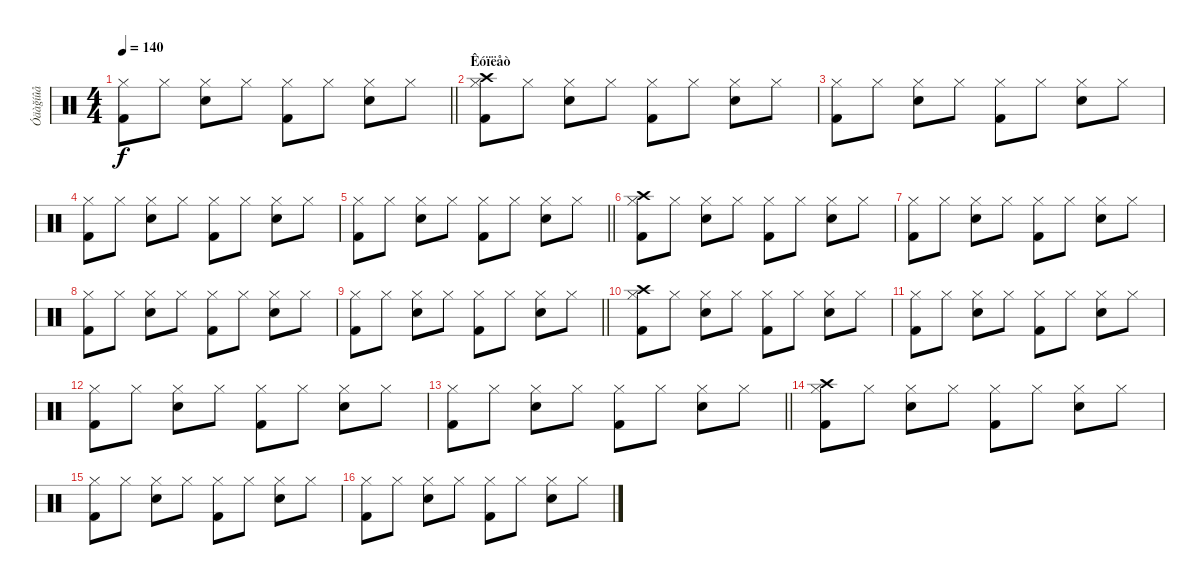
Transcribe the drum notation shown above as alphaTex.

\track ("Óäàğíûå" "Óäàğíûå") {instrument percussion}
\staff {score}
\articulation defaults
\ts (4 4)
\tempo 140
\clef neutral
\barLineRight lightlight
\ks c
("Hi-Hat (closed)" "Kick (hit) 2").8{dy f} "Hi-Hat (closed)".8 ("Hi-Hat (closed)" "Snare (hit) 2").8 "Hi-Hat (closed)".8 ("Hi-Hat (closed)" "Kick (hit) 2").8 "Hi-Hat (closed)".8 ("Hi-Hat (closed)" "Snare (hit) 2").8 "Hi-Hat (closed)".8 |
\section ("" "Êóïëåò")
("Hi-Hat (closed)" "Kick (hit) 2" "Crash high (hit)").8 "Hi-Hat (closed)".8 ("Hi-Hat (closed)" "Snare (hit) 2").8 "Hi-Hat (closed)".8 ("Hi-Hat (closed)" "Kick (hit) 2").8 "Hi-Hat (closed)".8 ("Hi-Hat (closed)" "Snare (hit) 2").8 "Hi-Hat (closed)".8 |
("Hi-Hat (closed)" "Kick (hit) 2").8 "Hi-Hat (closed)".8 ("Hi-Hat (closed)" "Snare (hit) 2").8 "Hi-Hat (closed)".8 ("Hi-Hat (closed)" "Kick (hit) 2").8 "Hi-Hat (closed)".8 ("Hi-Hat (closed)" "Snare (hit) 2").8 "Hi-Hat (closed)".8 |
("Hi-Hat (closed)" "Kick (hit) 2").8 "Hi-Hat (closed)".8 ("Hi-Hat (closed)" "Snare (hit) 2").8 "Hi-Hat (closed)".8 ("Hi-Hat (closed)" "Kick (hit) 2").8 "Hi-Hat (closed)".8 ("Hi-Hat (closed)" "Snare (hit) 2").8 "Hi-Hat (closed)".8 |
\barLineRight lightlight
("Hi-Hat (closed)" "Kick (hit) 2").8 "Hi-Hat (closed)".8 ("Hi-Hat (closed)" "Snare (hit) 2").8 "Hi-Hat (closed)".8 ("Hi-Hat (closed)" "Kick (hit) 2").8 "Hi-Hat (closed)".8 ("Hi-Hat (closed)" "Snare (hit) 2").8 "Hi-Hat (closed)".8 |
("Hi-Hat (closed)" "Kick (hit) 2" "Crash high (hit)").8 "Hi-Hat (closed)".8 ("Hi-Hat (closed)" "Snare (hit) 2").8 "Hi-Hat (closed)".8 ("Hi-Hat (closed)" "Kick (hit) 2").8 "Hi-Hat (closed)".8 ("Hi-Hat (closed)" "Snare (hit) 2").8 "Hi-Hat (closed)".8 |
("Hi-Hat (closed)" "Kick (hit) 2").8 "Hi-Hat (closed)".8 ("Hi-Hat (closed)" "Snare (hit) 2").8 "Hi-Hat (closed)".8 ("Hi-Hat (closed)" "Kick (hit) 2").8 "Hi-Hat (closed)".8 ("Hi-Hat (closed)" "Snare (hit) 2").8 "Hi-Hat (closed)".8 |
("Hi-Hat (closed)" "Kick (hit) 2").8 "Hi-Hat (closed)".8 ("Hi-Hat (closed)" "Snare (hit) 2").8 "Hi-Hat (closed)".8 ("Hi-Hat (closed)" "Kick (hit) 2").8 "Hi-Hat (closed)".8 ("Hi-Hat (closed)" "Snare (hit) 2").8 "Hi-Hat (closed)".8 |
\barLineRight lightlight
("Hi-Hat (closed)" "Kick (hit) 2").8 "Hi-Hat (closed)".8 ("Hi-Hat (closed)" "Snare (hit) 2").8 "Hi-Hat (closed)".8 ("Hi-Hat (closed)" "Kick (hit) 2").8 "Hi-Hat (closed)".8 ("Hi-Hat (closed)" "Snare (hit) 2").8 "Hi-Hat (closed)".8 |
("Hi-Hat (closed)" "Kick (hit) 2" "Crash high (hit)").8 "Hi-Hat (closed)".8 ("Hi-Hat (closed)" "Snare (hit) 2").8 "Hi-Hat (closed)".8 ("Hi-Hat (closed)" "Kick (hit) 2").8 "Hi-Hat (closed)".8 ("Hi-Hat (closed)" "Snare (hit) 2").8 "Hi-Hat (closed)".8 |
("Hi-Hat (closed)" "Kick (hit) 2").8 "Hi-Hat (closed)".8 ("Hi-Hat (closed)" "Snare (hit) 2").8 "Hi-Hat (closed)".8 ("Hi-Hat (closed)" "Kick (hit) 2").8 "Hi-Hat (closed)".8 ("Hi-Hat (closed)" "Snare (hit) 2").8 "Hi-Hat (closed)".8 |
("Hi-Hat (closed)" "Kick (hit) 2").8 "Hi-Hat (closed)".8 ("Hi-Hat (closed)" "Snare (hit) 2").8 "Hi-Hat (closed)".8 ("Hi-Hat (closed)" "Kick (hit) 2").8 "Hi-Hat (closed)".8 ("Hi-Hat (closed)" "Snare (hit) 2").8 "Hi-Hat (closed)".8 |
\barLineRight lightlight
("Hi-Hat (closed)" "Kick (hit) 2").8 "Hi-Hat (closed)".8 ("Hi-Hat (closed)" "Snare (hit) 2").8 "Hi-Hat (closed)".8 ("Hi-Hat (closed)" "Kick (hit) 2").8 "Hi-Hat (closed)".8 ("Hi-Hat (closed)" "Snare (hit) 2").8 "Hi-Hat (closed)".8 |
("Hi-Hat (closed)" "Kick (hit) 2" "Crash high (hit)").8 "Hi-Hat (closed)".8 ("Hi-Hat (closed)" "Snare (hit) 2").8 "Hi-Hat (closed)".8 ("Hi-Hat (closed)" "Kick (hit) 2").8 "Hi-Hat (closed)".8 ("Hi-Hat (closed)" "Snare (hit) 2").8 "Hi-Hat (closed)".8 |
("Hi-Hat (closed)" "Kick (hit) 2").8 "Hi-Hat (closed)".8 ("Hi-Hat (closed)" "Snare (hit) 2").8 "Hi-Hat (closed)".8 ("Hi-Hat (closed)" "Kick (hit) 2").8 "Hi-Hat (closed)".8 ("Hi-Hat (closed)" "Snare (hit) 2").8 "Hi-Hat (closed)".8 |
("Hi-Hat (closed)" "Kick (hit) 2").8 "Hi-Hat (closed)".8 ("Hi-Hat (closed)" "Snare (hit) 2").8 "Hi-Hat (closed)".8 ("Hi-Hat (closed)" "Kick (hit) 2").8 "Hi-Hat (closed)".8 ("Hi-Hat (closed)" "Snare (hit) 2").8 "Hi-Hat (closed)".8
